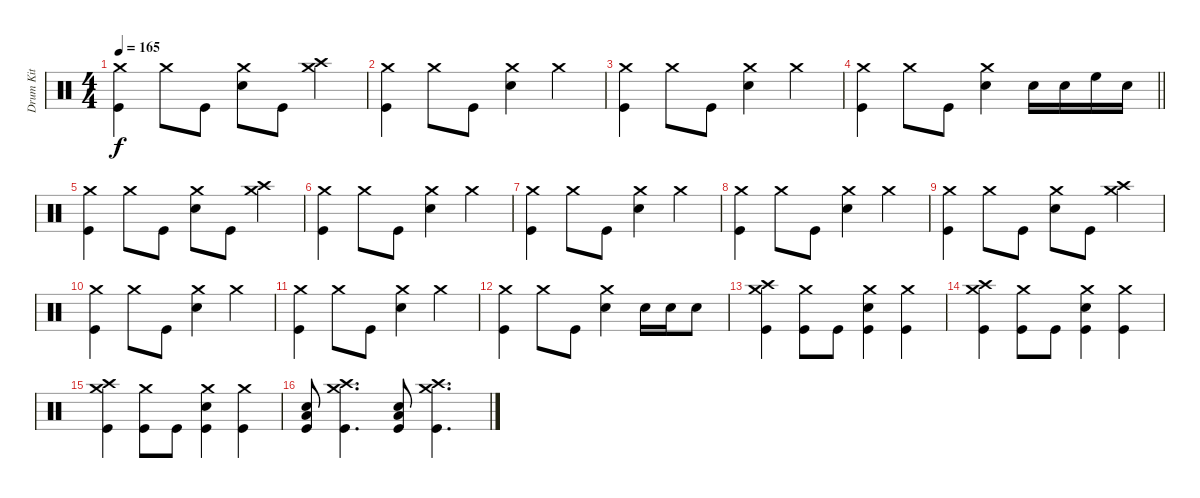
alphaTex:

\track ("Drum Kit" "Drum Kit") {instrument percussion}
\staff {score}
\articulation defaults
\ts (4 4)
\tempo 165
\clef neutral
\ks c
("Crash medium (hit)" "Kick (hit)").4{dy f} "Crash medium (hit)".8 "Kick (hit)".8 ("Snare (hit) 2" "Crash medium (hit)").8 "Kick (hit)".8 ("Crash medium (hit)" "Crash high (hit)").4 |
("Crash medium (hit)" "Kick (hit)").4 "Crash medium (hit)".8 "Kick (hit)".8 ("Snare (hit) 2" "Crash medium (hit)").4 "Crash medium (hit)".4 |
("Crash medium (hit)" "Kick (hit)").4 "Crash medium (hit)".8 "Kick (hit)".8 ("Snare (hit) 2" "Crash medium (hit)").4 "Crash medium (hit)".4 |
\barLineRight lightlight
("Crash medium (hit)" "Kick (hit)").4 "Crash medium (hit)".8 "Kick (hit)".8 ("Snare (hit) 2" "Crash medium (hit)").4 "Snare (hit) 2".16 "Snare (hit) 2".16 "High Floor Tom (hit)".16 "Snare (hit) 2".16 |
("Crash medium (hit)" "Kick (hit)").4 "Crash medium (hit)".8 "Kick (hit)".8 ("Snare (hit) 2" "Crash medium (hit)").8 "Kick (hit)".8 ("Crash medium (hit)" "Crash high (hit)").4 |
("Crash medium (hit)" "Kick (hit)").4 "Crash medium (hit)".8 "Kick (hit)".8 ("Snare (hit) 2" "Crash medium (hit)").4 "Crash medium (hit)".4 |
("Crash medium (hit)" "Kick (hit)").4 "Crash medium (hit)".8 "Kick (hit)".8 ("Snare (hit) 2" "Crash medium (hit)").4 "Crash medium (hit)".4 |
("Crash medium (hit)" "Kick (hit)").4 "Crash medium (hit)".8 "Kick (hit)".8 ("Snare (hit) 2" "Crash medium (hit)").4 "Crash medium (hit)".4 |
("Crash medium (hit)" "Kick (hit)").4 "Crash medium (hit)".8 "Kick (hit)".8 ("Snare (hit) 2" "Crash medium (hit)").8 "Kick (hit)".8 ("Crash medium (hit)" "Crash high (hit)").4 |
("Crash medium (hit)" "Kick (hit)").4 "Crash medium (hit)".8 "Kick (hit)".8 ("Snare (hit) 2" "Crash medium (hit)").4 "Crash medium (hit)".4 |
("Crash medium (hit)" "Kick (hit)").4 "Crash medium (hit)".8 "Kick (hit)".8 ("Snare (hit) 2" "Crash medium (hit)").4 "Crash medium (hit)".4 |
("Crash medium (hit)" "Kick (hit)").4 "Crash medium (hit)".8 "Kick (hit)".8 ("Snare (hit) 2" "Crash medium (hit)").4 "Snare (hit) 2".16 "Snare (hit) 2".16 "Snare (hit) 2".8 |
("Crash high (hit)" "Crash medium (hit)" "Kick (hit)").4 ("Crash medium (hit)" "Kick (hit)").8 "Kick (hit)".8 ("Snare (hit) 2" "Crash medium (hit)" "Kick (hit)").4 ("Crash medium (hit)" "Kick (hit)").4 |
("Crash high (hit)" "Crash medium (hit)" "Kick (hit)").4 ("Crash medium (hit)" "Kick (hit)").8 "Kick (hit)".8 ("Snare (hit) 2" "Crash medium (hit)" "Kick (hit)").4 ("Crash medium (hit)" "Kick (hit)").4 |
("Crash high (hit)" "Crash medium (hit)" "Kick (hit)").4 ("Crash medium (hit)" "Kick (hit)").8 "Kick (hit)".8 ("Snare (hit) 2" "Crash medium (hit)" "Kick (hit)").4 ("Crash medium (hit)" "Kick (hit)").4 |
("Snare (hit) 2" "Low Floor Tom (hit)" "Kick (hit)").8 ("Crash high (hit)" "Crash medium (hit)" "Kick (hit)").4{d} ("Snare (hit) 2" "Low Floor Tom (hit)" "Kick (hit)").8 ("Crash high (hit)" "Crash medium (hit)" "Kick (hit)").4{d}
